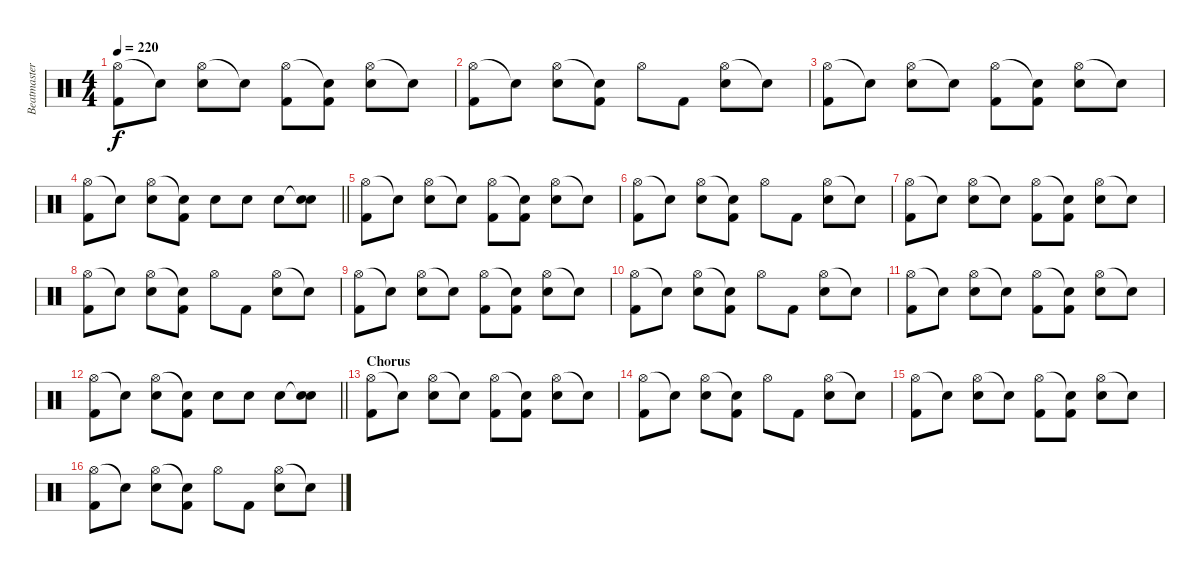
\track ("Beatmaster V" "Beatmaster") {instrument percussion}
\staff {score}
\articulation defaults
\ts (4 4)
\tempo 220
\clef neutral
\ks c
("Hi-Hat (open)" "Kick (hit) 2").8{dy f} "Snare (hit)"{t}.8 ("Hi-Hat (open)" "Snare (hit) 2").8 "Snare (hit)"{t}.8 ("Hi-Hat (open)" "Kick (hit) 2").8 ("Snare (hit)"{t} "Kick (hit) 2").8 ("Hi-Hat (open)" "Snare (hit) 2").8 "Snare (hit)"{t}.8 |
("Hi-Hat (open)" "Kick (hit) 2").8 "Snare (hit)"{t}.8 ("Hi-Hat (open)" "Snare (hit) 2").8 ("Snare (hit)"{t} "Kick (hit) 2").8 "Hi-Hat (open)".8 "Kick (hit) 2".8 ("Hi-Hat (open)" "Snare (hit) 2").8 "Snare (hit)"{t}.8 |
("Hi-Hat (open)" "Kick (hit) 2").8 "Snare (hit)"{t}.8 ("Hi-Hat (open)" "Snare (hit) 2").8 "Snare (hit)"{t}.8 ("Hi-Hat (open)" "Kick (hit) 2").8 ("Snare (hit)"{t} "Kick (hit) 2").8 ("Hi-Hat (open)" "Snare (hit) 2").8 "Snare (hit)"{t}.8 |
\barLineRight lightlight
("Hi-Hat (open)" "Kick (hit) 2").8 "Snare (hit)"{t}.8 ("Hi-Hat (open)" "Snare (hit) 2").8 ("Snare (hit)"{t} "Kick (hit) 2").8 "Snare (hit) 2".8 "Snare (hit) 2".8 "Snare (hit) 2".8 ("Snare (hit)"{t} "Snare (hit) 2").8 |
("Hi-Hat (open)" "Kick (hit) 2").8 "Snare (hit)"{t}.8 ("Hi-Hat (open)" "Snare (hit) 2").8 "Snare (hit)"{t}.8 ("Hi-Hat (open)" "Kick (hit) 2").8 ("Snare (hit)"{t} "Kick (hit) 2").8 ("Hi-Hat (open)" "Snare (hit) 2").8 "Snare (hit)"{t}.8 |
("Hi-Hat (open)" "Kick (hit) 2").8 "Snare (hit)"{t}.8 ("Hi-Hat (open)" "Snare (hit) 2").8 ("Snare (hit)"{t} "Kick (hit) 2").8 "Hi-Hat (open)".8 "Kick (hit) 2".8 ("Hi-Hat (open)" "Snare (hit) 2").8 "Snare (hit)"{t}.8 |
("Hi-Hat (open)" "Kick (hit) 2").8 "Snare (hit)"{t}.8 ("Hi-Hat (open)" "Snare (hit) 2").8 "Snare (hit)"{t}.8 ("Hi-Hat (open)" "Kick (hit) 2").8 ("Snare (hit)"{t} "Kick (hit) 2").8 ("Hi-Hat (open)" "Snare (hit) 2").8 "Snare (hit)"{t}.8 |
("Hi-Hat (open)" "Kick (hit) 2").8 "Snare (hit)"{t}.8 ("Hi-Hat (open)" "Snare (hit) 2").8 ("Snare (hit)"{t} "Kick (hit) 2").8 "Hi-Hat (open)".8 "Kick (hit) 2".8 ("Hi-Hat (open)" "Snare (hit) 2").8 "Snare (hit)"{t}.8 |
("Hi-Hat (open)" "Kick (hit) 2").8 "Snare (hit)"{t}.8 ("Hi-Hat (open)" "Snare (hit) 2").8 "Snare (hit)"{t}.8 ("Hi-Hat (open)" "Kick (hit) 2").8 ("Snare (hit)"{t} "Kick (hit) 2").8 ("Hi-Hat (open)" "Snare (hit) 2").8 "Snare (hit)"{t}.8 |
("Hi-Hat (open)" "Kick (hit) 2").8 "Snare (hit)"{t}.8 ("Hi-Hat (open)" "Snare (hit) 2").8 ("Snare (hit)"{t} "Kick (hit) 2").8 "Hi-Hat (open)".8 "Kick (hit) 2".8 ("Hi-Hat (open)" "Snare (hit) 2").8 "Snare (hit)"{t}.8 |
("Hi-Hat (open)" "Kick (hit) 2").8 "Snare (hit)"{t}.8 ("Hi-Hat (open)" "Snare (hit) 2").8 "Snare (hit)"{t}.8 ("Hi-Hat (open)" "Kick (hit) 2").8 ("Snare (hit)"{t} "Kick (hit) 2").8 ("Hi-Hat (open)" "Snare (hit) 2").8 "Snare (hit)"{t}.8 |
\barLineRight lightlight
("Hi-Hat (open)" "Kick (hit) 2").8 "Snare (hit)"{t}.8 ("Hi-Hat (open)" "Snare (hit) 2").8 ("Snare (hit)"{t} "Kick (hit) 2").8 "Snare (hit) 2".8 "Snare (hit) 2".8 "Snare (hit) 2".8 ("Snare (hit)"{t} "Snare (hit) 2").8 |
\section ("" "Chorus ")
("Hi-Hat (open)" "Kick (hit) 2").8 "Snare (hit)"{t}.8 ("Hi-Hat (open)" "Snare (hit) 2").8 "Snare (hit)"{t}.8 ("Hi-Hat (open)" "Kick (hit) 2").8 ("Snare (hit)"{t} "Kick (hit) 2").8 ("Hi-Hat (open)" "Snare (hit) 2").8 "Snare (hit)"{t}.8 |
("Hi-Hat (open)" "Kick (hit) 2").8 "Snare (hit)"{t}.8 ("Hi-Hat (open)" "Snare (hit) 2").8 ("Snare (hit)"{t} "Kick (hit) 2").8 "Hi-Hat (open)".8 "Kick (hit) 2".8 ("Hi-Hat (open)" "Snare (hit) 2").8 "Snare (hit)"{t}.8 |
("Hi-Hat (open)" "Kick (hit) 2").8 "Snare (hit)"{t}.8 ("Hi-Hat (open)" "Snare (hit) 2").8 "Snare (hit)"{t}.8 ("Hi-Hat (open)" "Kick (hit) 2").8 ("Snare (hit)"{t} "Kick (hit) 2").8 ("Hi-Hat (open)" "Snare (hit) 2").8 "Snare (hit)"{t}.8 |
("Hi-Hat (open)" "Kick (hit) 2").8 "Snare (hit)"{t}.8 ("Hi-Hat (open)" "Snare (hit) 2").8 ("Snare (hit)"{t} "Kick (hit) 2").8 "Hi-Hat (open)".8 "Kick (hit) 2".8 ("Hi-Hat (open)" "Snare (hit) 2").8 "Snare (hit)"{t}.8
